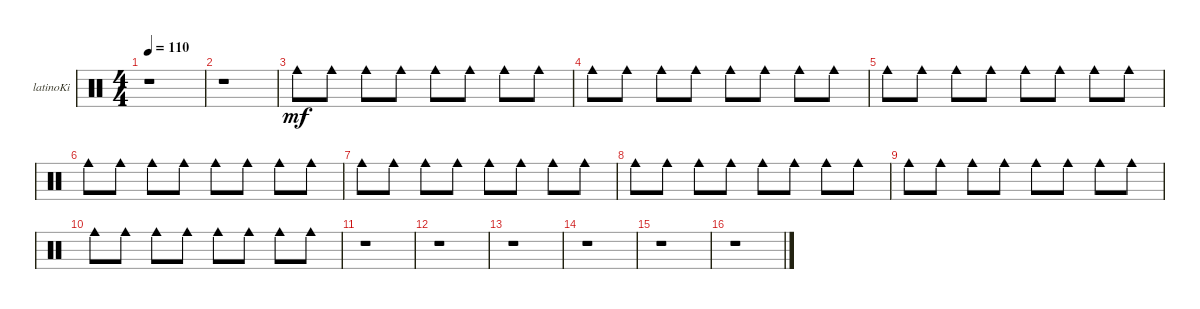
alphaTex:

\defaultSystemsLayout 4
\bracketExtendMode groupsimilarinstruments
\firstSystemTrackNameOrientation horizontal
\otherSystemsTrackNameOrientation horizontal
\track ("Tambourine" "latinoKi") {instrument percussion}
\staff {score}
\articulation defaults
\ts (4 4)
\tempo 110
\clef neutral
\ks c
r.1{dy mf} |
r.1 |
"Cowbell medium (hit)".8 "Cowbell medium (hit)".8 "Cowbell medium (hit)".8 "Cowbell medium (hit)".8 "Cowbell medium (hit)".8 "Cowbell medium (hit)".8 "Cowbell medium (hit)".8 "Cowbell medium (hit)".8 |
"Cowbell medium (hit)".8 "Cowbell medium (hit)".8 "Cowbell medium (hit)".8 "Cowbell medium (hit)".8 "Cowbell medium (hit)".8 "Cowbell medium (hit)".8 "Cowbell medium (hit)".8 "Cowbell medium (hit)".8 |
"Cowbell medium (hit)".8 "Cowbell medium (hit)".8 "Cowbell medium (hit)".8 "Cowbell medium (hit)".8 "Cowbell medium (hit)".8 "Cowbell medium (hit)".8 "Cowbell medium (hit)".8 "Cowbell medium (hit)".8 |
"Cowbell medium (hit)".8 "Cowbell medium (hit)".8 "Cowbell medium (hit)".8 "Cowbell medium (hit)".8 "Cowbell medium (hit)".8 "Cowbell medium (hit)".8 "Cowbell medium (hit)".8 "Cowbell medium (hit)".8 |
"Cowbell medium (hit)".8 "Cowbell medium (hit)".8 "Cowbell medium (hit)".8 "Cowbell medium (hit)".8 "Cowbell medium (hit)".8 "Cowbell medium (hit)".8 "Cowbell medium (hit)".8 "Cowbell medium (hit)".8 |
"Cowbell medium (hit)".8 "Cowbell medium (hit)".8 "Cowbell medium (hit)".8 "Cowbell medium (hit)".8 "Cowbell medium (hit)".8 "Cowbell medium (hit)".8 "Cowbell medium (hit)".8 "Cowbell medium (hit)".8 |
"Cowbell medium (hit)".8 "Cowbell medium (hit)".8 "Cowbell medium (hit)".8 "Cowbell medium (hit)".8 "Cowbell medium (hit)".8 "Cowbell medium (hit)".8 "Cowbell medium (hit)".8 "Cowbell medium (hit)".8 |
"Cowbell medium (hit)".8 "Cowbell medium (hit)".8 "Cowbell medium (hit)".8 "Cowbell medium (hit)".8 "Cowbell medium (hit)".8 "Cowbell medium (hit)".8 "Cowbell medium (hit)".8 "Cowbell medium (hit)".8 |
r.1 |
r.1 |
r.1 |
r.1 |
r.1 |
r.1
